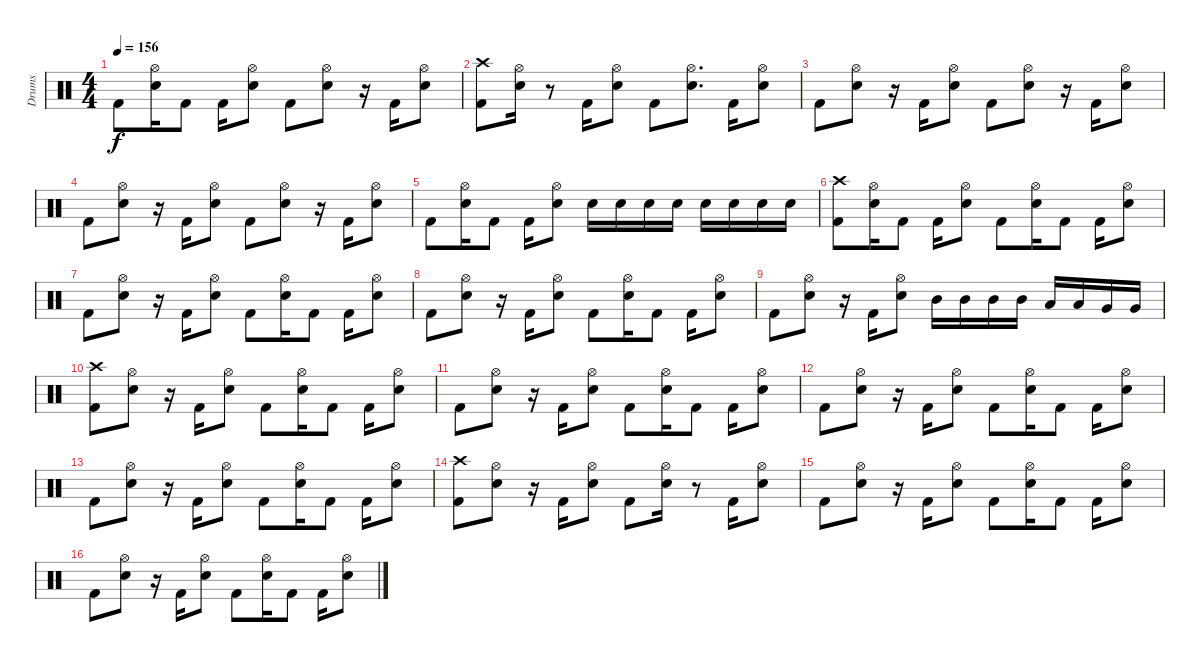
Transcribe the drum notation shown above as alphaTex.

\track ("Drums" "Drums") {instrument percussion}
\staff {score}
\articulation defaults
\ts (4 4)
\tempo 156
\clef neutral
\ks c "Kick (hit) 2".8{dy f}
("Hi-Hat (open)" "Electric Snare (hit)").16 "Kick (hit) 2".8 "Kick (hit) 2".16 ("Hi-Hat (open)" "Electric Snare (hit)").8 "Kick (hit) 2".8 ("Hi-Hat (open)" "Electric Snare (hit)").8 r.16 "Kick (hit) 2".16 ("Hi-Hat (open)" "Electric Snare (hit)").8 |
("Crash high (hit)" "Kick (hit) 2").8 ("Hi-Hat (open)" "Electric Snare (hit)").16 r.8 "Kick (hit) 2".16 ("Hi-Hat (open)" "Electric Snare (hit)").8 "Kick (hit) 2".8 ("Hi-Hat (open)" "Electric Snare (hit)").8{d} "Kick (hit) 2".16 ("Hi-Hat (open)" "Electric Snare (hit)").8 |
"Kick (hit) 2".8 ("Hi-Hat (open)" "Electric Snare (hit)").8 r.16 "Kick (hit) 2".16 ("Hi-Hat (open)" "Electric Snare (hit)").8 "Kick (hit) 2".8 ("Hi-Hat (open)" "Electric Snare (hit)").8 r.16 "Kick (hit) 2".16 ("Hi-Hat (open)" "Electric Snare (hit)").8 |
"Kick (hit) 2".8 ("Hi-Hat (open)" "Electric Snare (hit)").8 r.16 "Kick (hit) 2".16 ("Hi-Hat (open)" "Electric Snare (hit)").8 "Kick (hit) 2".8 ("Hi-Hat (open)" "Electric Snare (hit)").8 r.16 "Kick (hit) 2".16 ("Hi-Hat (open)" "Electric Snare (hit)").8 |
"Kick (hit) 2".8 ("Hi-Hat (open)" "Electric Snare (hit)").16 "Kick (hit) 2".8 "Kick (hit) 2".16 ("Hi-Hat (open)" "Electric Snare (hit)").8 "Electric Snare (hit)".16 "Electric Snare (hit)".16 "Electric Snare (hit)".16 "Electric Snare (hit)".16 "Electric Snare (hit)".16 "Electric Snare (hit)".16 "Electric Snare (hit)".16 "Electric Snare (hit)".16 |
("Crash high (hit)" "Kick (hit) 2").8 ("Hi-Hat (open)" "Electric Snare (hit)").16 "Kick (hit) 2".8 "Kick (hit) 2".16 ("Hi-Hat (open)" "Electric Snare (hit)").8 "Kick (hit) 2".8 ("Hi-Hat (open)" "Electric Snare (hit)").16 "Kick (hit) 2".8 "Kick (hit) 2".16 ("Hi-Hat (open)" "Electric Snare (hit)").8 |
"Kick (hit) 2".8 ("Hi-Hat (open)" "Electric Snare (hit)").8 r.16 "Kick (hit) 2".16 ("Hi-Hat (open)" "Electric Snare (hit)").8 "Kick (hit) 2".8 ("Hi-Hat (open)" "Electric Snare (hit)").16 "Kick (hit) 2".8 "Kick (hit) 2".16 ("Hi-Hat (open)" "Electric Snare (hit)").8 |
"Kick (hit) 2".8 ("Hi-Hat (open)" "Electric Snare (hit)").8 r.16 "Kick (hit) 2".16 ("Hi-Hat (open)" "Electric Snare (hit)").8 "Kick (hit) 2".8 ("Hi-Hat (open)" "Electric Snare (hit)").16 "Kick (hit) 2".8 "Kick (hit) 2".16 ("Hi-Hat (open)" "Electric Snare (hit)").8 |
"Kick (hit) 2".8 ("Hi-Hat (open)" "Electric Snare (hit)").8 r.16 "Kick (hit) 2".16 ("Hi-Hat (open)" "Electric Snare (hit)").8 "Mid Tom (hit)".16 "Mid Tom (hit)".16 "Mid Tom (hit)".16 "Mid Tom (hit)".16 "Low Tom (hit)".16 "Low Tom (hit)".16 "Very Low Tom (hit)".16 "Very Low Tom (hit)".16 |
("Crash high (hit)" "Kick (hit) 2").8 ("Hi-Hat (open)" "Electric Snare (hit)").8 r.16 "Kick (hit) 2".16 ("Hi-Hat (open)" "Electric Snare (hit)").8 "Kick (hit) 2".8 ("Hi-Hat (open)" "Electric Snare (hit)").16 "Kick (hit) 2".8 "Kick (hit) 2".16 ("Hi-Hat (open)" "Electric Snare (hit)").8 |
"Kick (hit) 2".8 ("Hi-Hat (open)" "Electric Snare (hit)").8 r.16 "Kick (hit) 2".16 ("Hi-Hat (open)" "Electric Snare (hit)").8 "Kick (hit) 2".8 ("Hi-Hat (open)" "Electric Snare (hit)").16 "Kick (hit) 2".8 "Kick (hit) 2".16 ("Hi-Hat (open)" "Electric Snare (hit)").8 |
"Kick (hit) 2".8 ("Hi-Hat (open)" "Electric Snare (hit)").8 r.16 "Kick (hit) 2".16 ("Hi-Hat (open)" "Electric Snare (hit)").8 "Kick (hit) 2".8 ("Hi-Hat (open)" "Electric Snare (hit)").16 "Kick (hit) 2".8 "Kick (hit) 2".16 ("Hi-Hat (open)" "Electric Snare (hit)").8 |
"Kick (hit) 2".8 ("Hi-Hat (open)" "Electric Snare (hit)").8 r.16 "Kick (hit) 2".16 ("Hi-Hat (open)" "Electric Snare (hit)").8 "Kick (hit) 2".8 ("Hi-Hat (open)" "Electric Snare (hit)").16 "Kick (hit) 2".8 "Kick (hit) 2".16 ("Hi-Hat (open)" "Electric Snare (hit)").8 |
("Crash high (hit)" "Kick (hit) 2").8 ("Hi-Hat (open)" "Electric Snare (hit)").8 r.16 "Kick (hit) 2".16 ("Hi-Hat (open)" "Electric Snare (hit)").8 "Kick (hit) 2".8 ("Hi-Hat (open)" "Electric Snare (hit)").16 r.8 "Kick (hit) 2".16 ("Hi-Hat (open)" "Electric Snare (hit)").8 |
"Kick (hit) 2".8 ("Hi-Hat (open)" "Electric Snare (hit)").8 r.16 "Kick (hit) 2".16 ("Hi-Hat (open)" "Electric Snare (hit)").8 "Kick (hit) 2".8 ("Hi-Hat (open)" "Electric Snare (hit)").16 "Kick (hit) 2".8 "Kick (hit) 2".16 ("Hi-Hat (open)" "Electric Snare (hit)").8 |
"Kick (hit) 2".8 ("Hi-Hat (open)" "Electric Snare (hit)").8 r.16 "Kick (hit) 2".16 ("Hi-Hat (open)" "Electric Snare (hit)").8 "Kick (hit) 2".8 ("Hi-Hat (open)" "Electric Snare (hit)").16 "Kick (hit) 2".8 "Kick (hit) 2".16 ("Hi-Hat (open)" "Electric Snare (hit)").8
